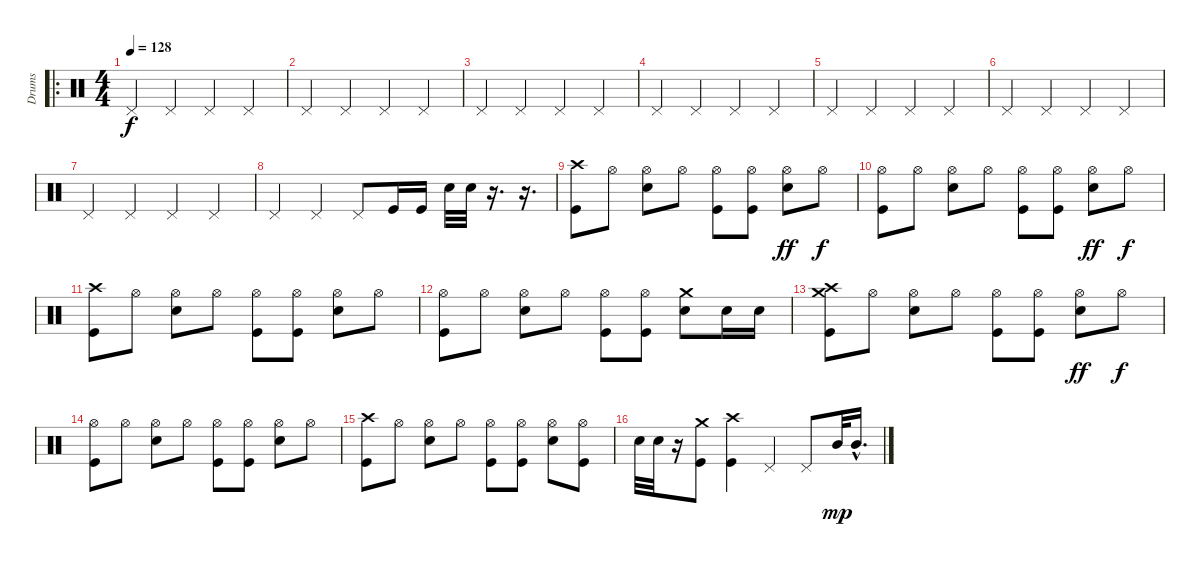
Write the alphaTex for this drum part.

\track ("Drums" "Drums") {instrument percussion}
\staff {score}
\articulation defaults
\ro
\ts (4 4)
\tempo 128
\clef neutral
\ks c "Pedal Hi-Hat (hit)".4{dy f} "Pedal Hi-Hat (hit)".4 "Pedal Hi-Hat (hit)".4 "Pedal Hi-Hat (hit)".4
|
"Pedal Hi-Hat (hit)".4 "Pedal Hi-Hat (hit)".4 "Pedal Hi-Hat (hit)".4 "Pedal Hi-Hat (hit)".4 |
"Pedal Hi-Hat (hit)".4 "Pedal Hi-Hat (hit)".4 "Pedal Hi-Hat (hit)".4 "Pedal Hi-Hat (hit)".4 |
"Pedal Hi-Hat (hit)".4 "Pedal Hi-Hat (hit)".4 "Pedal Hi-Hat (hit)".4 "Pedal Hi-Hat (hit)".4 |
"Pedal Hi-Hat (hit)".4 "Pedal Hi-Hat (hit)".4 "Pedal Hi-Hat (hit)".4 "Pedal Hi-Hat (hit)".4 |
"Pedal Hi-Hat (hit)".4 "Pedal Hi-Hat (hit)".4 "Pedal Hi-Hat (hit)".4 "Pedal Hi-Hat (hit)".4 |
"Pedal Hi-Hat (hit)".4 "Pedal Hi-Hat (hit)".4 "Pedal Hi-Hat (hit)".4 "Pedal Hi-Hat (hit)".4 |
"Pedal Hi-Hat (hit)".4 "Pedal Hi-Hat (hit)".4 "Pedal Hi-Hat (hit)".8 "Kick (hit)".16 "Kick (hit)".16 "Snare (hit) 2".32 "Snare (hit) 2".32 r.16{d} r.16{d} |
("Crash high (hit)" "Kick (hit)").8 "Hi-Hat (open)".8 ("Hi-Hat (open)" "Snare (hit) 2").8 "Hi-Hat (open)".8 ("Hi-Hat (open)" "Kick (hit)").8 ("Hi-Hat (open)" "Kick (hit)").8 ("Hi-Hat (open)" "Snare (hit) 2").8{dy ff} "Hi-Hat (open)".8{dy f} |
("Hi-Hat (open)" "Kick (hit)").8 "Hi-Hat (open)".8 ("Hi-Hat (open)" "Snare (hit) 2").8 "Hi-Hat (open)".8 ("Hi-Hat (open)" "Kick (hit)").8 ("Hi-Hat (open)" "Kick (hit)").8 ("Hi-Hat (open)" "Snare (hit) 2").8{dy ff} "Hi-Hat (open)".8{dy f} |
("Crash high (hit)" "Kick (hit)").8 "Hi-Hat (open)".8 ("Hi-Hat (open)" "Snare (hit) 2").8 "Hi-Hat (open)".8 ("Hi-Hat (open)" "Kick (hit)").8 ("Hi-Hat (open)" "Kick (hit)").8 ("Hi-Hat (open)" "Snare (hit) 2").8 "Hi-Hat (open)".8 |
("Hi-Hat (open)" "Kick (hit)").8 "Hi-Hat (open)".8 ("Hi-Hat (open)" "Snare (hit) 2").8 "Hi-Hat (open)".8 ("Hi-Hat (open)" "Kick (hit)").8 ("Hi-Hat (open)" "Kick (hit)").8 ("Crash medium (hit)" "Snare (hit) 2").8 "Snare (hit) 2".16 "Snare (hit) 2".16 |
("Crash high (hit)" "Crash medium (hit)" "Kick (hit)").8 "Hi-Hat (open)".8 ("Hi-Hat (open)" "Snare (hit) 2").8 "Hi-Hat (open)".8 ("Hi-Hat (open)" "Kick (hit)").8 ("Hi-Hat (open)" "Kick (hit)").8 ("Hi-Hat (open)" "Snare (hit) 2").8{dy ff} "Hi-Hat (open)".8{dy f} |
("Hi-Hat (open)" "Kick (hit)").8 "Hi-Hat (open)".8 ("Hi-Hat (open)" "Snare (hit) 2").8 "Hi-Hat (open)".8 ("Hi-Hat (open)" "Kick (hit)").8 ("Hi-Hat (open)" "Kick (hit)").8 ("Hi-Hat (open)" "Snare (hit) 2").8 "Hi-Hat (open)".8 |
("Crash high (hit)" "Kick (hit)").8 "Hi-Hat (open)".8 ("Hi-Hat (open)" "Snare (hit) 2").8 "Hi-Hat (open)".8 ("Hi-Hat (open)" "Kick (hit)").8 ("Hi-Hat (open)" "Kick (hit)").8 ("Hi-Hat (open)" "Snare (hit) 2").8 ("Hi-Hat (open)" "Kick (hit)").8 |
"Snare (hit) 2".32 "Snare (hit) 2".32 r.16 ("Crash medium (hit)" "Kick (hit)").8 ("Crash high (hit)" "Kick (hit)").4 "Pedal Hi-Hat (hit)".4 "Pedal Hi-Hat (hit)".8 "Mid Tom (hit)".32{dy mp} "Mid Tom (hit)"{hac}.16{d}
